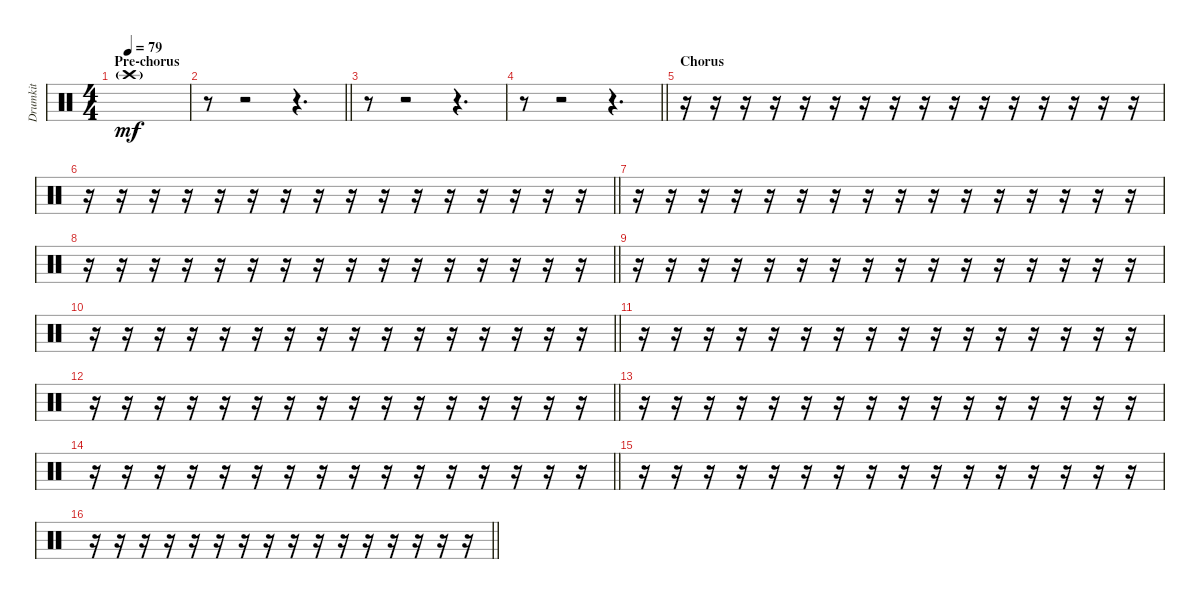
\track ("Drumkit" "Drumkit") {instrument percussion}
\staff {score}
\articulation defaults
\ts (4 4)
\section ("" "Pre-chorus")
\tempo 79
\clef neutral
\ks c "Crash high (hit)"{g}.1{dy mf}
|
\barLineRight lightlight
r.8 r.2 r.4{d} |
r.8 r.2 r.4{d} |
\barLineRight lightlight
r.8 r.2 r.4{d} |
\section ("" "Chorus")
r.16 r.16 r.16 r.16 r.16 r.16 r.16 r.16 r.16 r.16 r.16 r.16 r.16 r.16 r.16 r.16 |
\barLineRight lightlight
r.16 r.16 r.16 r.16 r.16 r.16 r.16 r.16 r.16 r.16 r.16 r.16 r.16 r.16 r.16 r.16 |
r.16 r.16 r.16 r.16 r.16 r.16 r.16 r.16 r.16 r.16 r.16 r.16 r.16 r.16 r.16 r.16 |
\barLineRight lightlight
r.16 r.16 r.16 r.16 r.16 r.16 r.16 r.16 r.16 r.16 r.16 r.16 r.16 r.16 r.16 r.16 |
r.16 r.16 r.16 r.16 r.16 r.16 r.16 r.16 r.16 r.16 r.16 r.16 r.16 r.16 r.16 r.16 |
\barLineRight lightlight
r.16 r.16 r.16 r.16 r.16 r.16 r.16 r.16 r.16 r.16 r.16 r.16 r.16 r.16 r.16 r.16 |
r.16 r.16 r.16 r.16 r.16 r.16 r.16 r.16 r.16 r.16 r.16 r.16 r.16 r.16 r.16 r.16 |
\barLineRight lightlight
r.16 r.16 r.16 r.16 r.16 r.16 r.16 r.16 r.16 r.16 r.16 r.16 r.16 r.16 r.16 r.16 |
r.16 r.16 r.16 r.16 r.16 r.16 r.16 r.16 r.16 r.16 r.16 r.16 r.16 r.16 r.16 r.16 |
\barLineRight lightlight
r.16 r.16 r.16 r.16 r.16 r.16 r.16 r.16 r.16 r.16 r.16 r.16 r.16 r.16 r.16 r.16 |
r.16 r.16 r.16 r.16 r.16 r.16 r.16 r.16 r.16 r.16 r.16 r.16 r.16 r.16 r.16 r.16 |
\barLineRight lightlight
r.16 r.16 r.16 r.16 r.16 r.16 r.16 r.16 r.16 r.16 r.16 r.16 r.16 r.16 r.16 r.16
